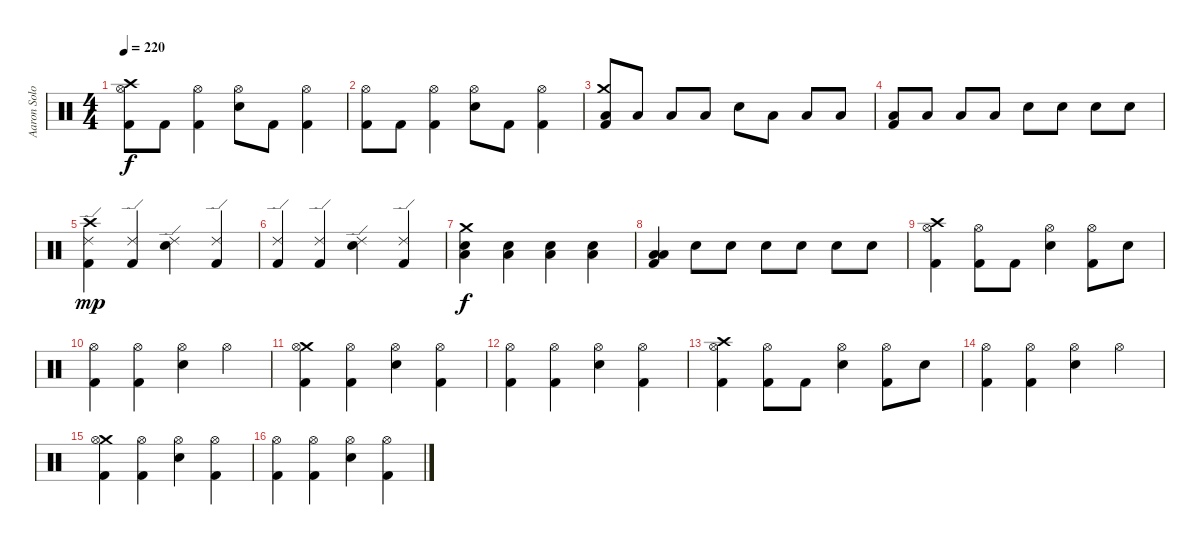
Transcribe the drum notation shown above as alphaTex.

\track ("Aaron Solowoniuk" "Aaron Solo") {instrument percussion}
\staff {score}
\articulation defaults
\ts (4 4)
\tempo 220
\clef neutral
\ks c
("Crash high (hit)" "Hi-Hat (open)" "Kick (hit) 2").8{dy f} "Kick (hit) 2".8 ("Hi-Hat (open)" "Kick (hit) 2").4 ("Hi-Hat (open)" "Snare (hit) 2").8 "Kick (hit) 2".8 ("Hi-Hat (open)" "Kick (hit) 2").4 |
("Hi-Hat (open)" "Kick (hit) 2").8 "Kick (hit) 2".8 ("Hi-Hat (open)" "Kick (hit) 2").4 ("Hi-Hat (open)" "Snare (hit) 2").8 "Kick (hit) 2".8 ("Hi-Hat (open)" "Kick (hit) 2").4 |
("Crash medium (hit)" "Low Floor Tom (hit)" "Kick (hit) 2").8 "Low Floor Tom (hit)".8 "Low Floor Tom (hit)".8 "Low Tom (hit)".8 "Snare (hit) 2".8 "Low Floor Tom (hit)".8 "Low Floor Tom (hit)".8 "Low Floor Tom (hit)".8 |
("Low Tom (hit)" "Kick (hit) 2").8 "Low Floor Tom (hit)".8 "Low Floor Tom (hit)".8 "Low Floor Tom (hit)".8 "Snare (hit) 2".8 "Snare (hit) 2".8 "Snare (hit) 2".8 "Snare (hit) 2".8 |
("Crash high (hit)" "Ride (edge) 2" "Kick (hit) 2").4{dy mp} ("Ride (edge) 2" "Kick (hit) 2").4 ("Ride (edge) 2" "Snare (hit) 2").4 ("Ride (edge) 2" "Kick (hit) 2").4 |
("Ride (edge) 2" "Kick (hit) 2").4 ("Ride (edge) 2" "Kick (hit) 2").4 ("Ride (edge) 2" "Snare (hit) 2").4 ("Ride (edge) 2" "Kick (hit) 2").4 |
("Crash medium (hit)" "Low Floor Tom (hit)" "Snare (hit) 2").4{dy f} ("Low Floor Tom (hit)" "Snare (hit) 2").4 ("Low Floor Tom (hit)" "Snare (hit) 2").4 ("Low Floor Tom (hit)" "Snare (hit) 2").4 |
("Low Floor Tom (hit)" "Low Tom (hit)" "Kick (hit) 2").4 "Snare (hit) 2".8 "Snare (hit) 2".8 "Snare (hit) 2".8 "Snare (hit) 2".8 "Snare (hit) 2".8 "Snare (hit) 2".8 |
("Crash high (hit)" "Hi-Hat (open)" "Kick (hit) 2").4 ("Hi-Hat (open)" "Kick (hit) 2").8 "Kick (hit) 2".8 ("Hi-Hat (open)" "Snare (hit) 2").4 ("Hi-Hat (open)" "Kick (hit) 2").8 "Snare (hit) 2".8 |
("Hi-Hat (open)" "Kick (hit) 2").4 ("Hi-Hat (open)" "Kick (hit) 2").4 ("Hi-Hat (open)" "Snare (hit) 2").4 "Hi-Hat (open)".4 |
("Crash medium (hit)" "Hi-Hat (open)" "Kick (hit) 2").4 ("Hi-Hat (open)" "Kick (hit) 2").4 ("Hi-Hat (open)" "Snare (hit) 2").4 ("Hi-Hat (open)" "Kick (hit) 2").4 |
("Hi-Hat (open)" "Kick (hit) 2").4 ("Hi-Hat (open)" "Kick (hit) 2").4 ("Hi-Hat (open)" "Snare (hit) 2").4 ("Hi-Hat (open)" "Kick (hit) 2").4 |
("Crash high (hit)" "Hi-Hat (open)" "Kick (hit) 2").4 ("Hi-Hat (open)" "Kick (hit) 2").8 "Kick (hit) 2".8 ("Hi-Hat (open)" "Snare (hit) 2").4 ("Hi-Hat (open)" "Kick (hit) 2").8 "Snare (hit) 2".8 |
("Hi-Hat (open)" "Kick (hit) 2").4 ("Hi-Hat (open)" "Kick (hit) 2").4 ("Hi-Hat (open)" "Snare (hit) 2").4 "Hi-Hat (open)".4 |
("Crash medium (hit)" "Hi-Hat (open)" "Kick (hit) 2").4 ("Hi-Hat (open)" "Kick (hit) 2").4 ("Hi-Hat (open)" "Snare (hit) 2").4 ("Hi-Hat (open)" "Kick (hit) 2").4 |
("Hi-Hat (open)" "Kick (hit) 2").4 ("Hi-Hat (open)" "Kick (hit) 2").4 ("Hi-Hat (open)" "Snare (hit) 2").4 ("Hi-Hat (open)" "Kick (hit) 2").4
